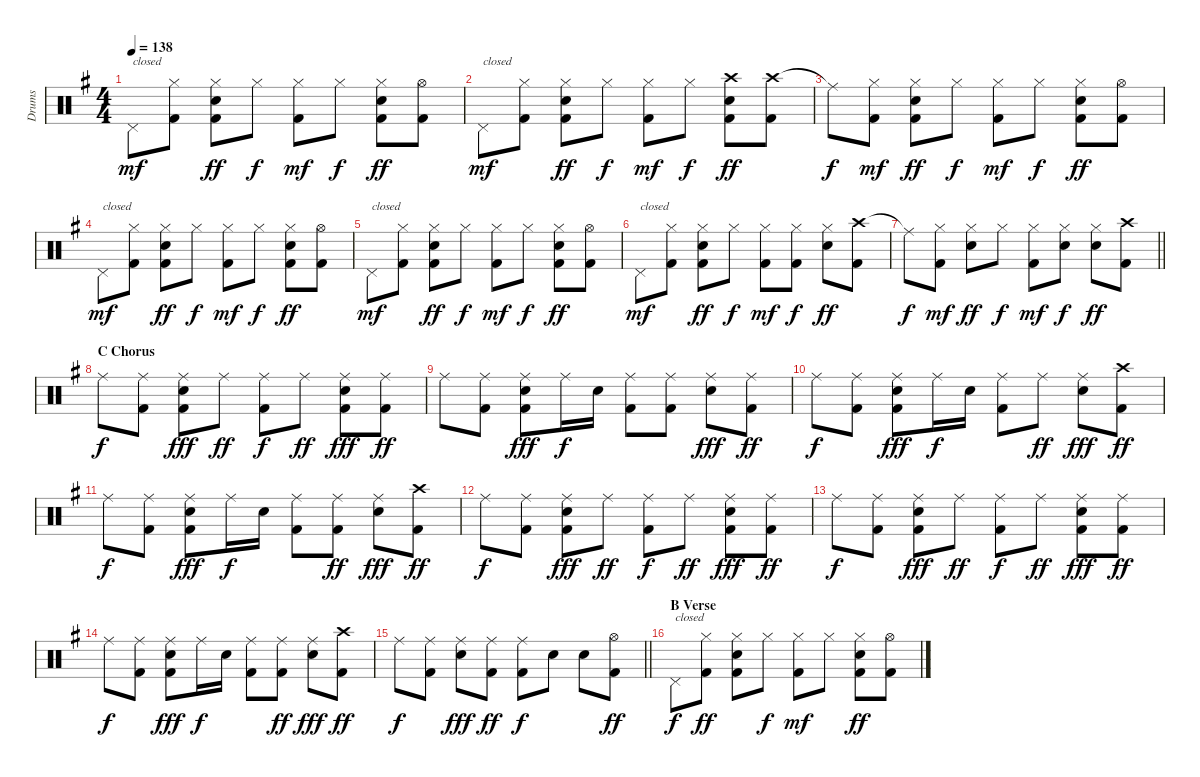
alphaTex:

\track ("Drums" "Drums") {instrument percussion}
\staff {score}
\articulation defaults
\ts (4 4)
\tempo 138
\clef neutral
\ks g "Pedal Hi-Hat (hit)".8{txt "closed" dy mf}
("Hi-Hat (closed)" "Kick (hit) 2").8 ("Snare (hit) 2" "Hi-Hat (closed)" "Kick (hit) 2").8{dy ff} "Hi-Hat (closed)".8{dy f} ("Hi-Hat (closed)" "Kick (hit) 2").8{dy mf} "Hi-Hat (closed)".8{dy f} ("Snare (hit) 2" "Hi-Hat (closed)" "Kick (hit) 2").8{dy ff} ("Hi-Hat (open)" "Kick (hit) 2").8 |
"Pedal Hi-Hat (hit)".8{txt "closed" dy mf} ("Hi-Hat (closed)" "Kick (hit) 2").8 ("Snare (hit) 2" "Hi-Hat (closed)" "Kick (hit) 2").8{dy ff} "Hi-Hat (closed)".8{dy f} ("Hi-Hat (closed)" "Kick (hit) 2").8{dy mf} "Hi-Hat (closed)".8{dy f} ("Crash high (hit)" "Snare (hit) 2" "Kick (hit) 2").8{dy ff} ("Crash high (hit)" "Kick (hit) 2").8 |
"Ride (middle)"{t}.8{dy f} ("Hi-Hat (closed)" "Kick (hit) 2").8{dy mf} ("Snare (hit) 2" "Hi-Hat (closed)" "Kick (hit) 2").8{dy ff} "Hi-Hat (closed)".8{dy f} ("Hi-Hat (closed)" "Kick (hit) 2").8{dy mf} "Hi-Hat (closed)".8{dy f} ("Snare (hit) 2" "Hi-Hat (closed)" "Kick (hit) 2").8{dy ff} ("Hi-Hat (open)" "Kick (hit) 2").8 |
"Pedal Hi-Hat (hit)".8{txt "closed" dy mf} ("Hi-Hat (closed)" "Kick (hit) 2").8 ("Snare (hit) 2" "Hi-Hat (closed)" "Kick (hit) 2").8{dy ff} "Hi-Hat (closed)".8{dy f} ("Hi-Hat (closed)" "Kick (hit) 2").8{dy mf} "Hi-Hat (closed)".8{dy f} ("Snare (hit) 2" "Hi-Hat (closed)" "Kick (hit) 2").8{dy ff} ("Hi-Hat (open)" "Kick (hit) 2").8 |
"Pedal Hi-Hat (hit)".8{txt "closed" dy mf} ("Hi-Hat (closed)" "Kick (hit) 2").8 ("Snare (hit) 2" "Hi-Hat (closed)" "Kick (hit) 2").8{dy ff} "Hi-Hat (closed)".8{dy f} ("Hi-Hat (closed)" "Kick (hit) 2").8{dy mf} "Hi-Hat (closed)".8{dy f} ("Snare (hit) 2" "Hi-Hat (closed)" "Kick (hit) 2").8{dy ff} ("Hi-Hat (open)" "Kick (hit) 2").8 |
"Pedal Hi-Hat (hit)".8{txt "closed" dy mf} ("Hi-Hat (closed)" "Kick (hit) 2").8 ("Snare (hit) 2" "Hi-Hat (closed)" "Kick (hit) 2").8{dy ff} "Hi-Hat (closed)".8{dy f} ("Hi-Hat (closed)" "Kick (hit) 2").8{dy mf} ("Hi-Hat (closed)" "Kick (hit) 2").8{dy f} ("Snare (hit) 2" "Hi-Hat (closed)").8{dy ff} ("Crash high (hit)" "Kick (hit) 2").8 |
\barLineRight lightlight "Ride (middle)"{t}.8{dy f}
("Hi-Hat (closed)" "Kick (hit) 2").8{dy mf} ("Snare (hit) 2" "Hi-Hat (closed)").8{dy ff} "Hi-Hat (closed)".8{dy f} ("Hi-Hat (closed)" "Kick (hit) 2").8{dy mf} ("Snare (hit) 2" "Hi-Hat (closed)").8{dy f} ("Snare (hit) 2" "Hi-Hat (closed)").8{dy ff} ("Crash high (hit)" "Kick (hit) 2").8 |
\section ("" "C Chorus")
"Ride (middle)".8{dy f} ("Ride (middle)" "Kick (hit) 2").8 ("Ride (middle)" "Snare (hit) 2" "Kick (hit) 2").8{dy fff} "Ride (middle)".8{dy ff} ("Ride (middle)" "Kick (hit) 2").8{dy f} "Ride (middle)".8{dy ff} ("Ride (middle)" "Snare (hit) 2" "Kick (hit) 2").8{dy fff} ("Ride (middle)" "Kick (hit) 2").8{dy ff} |
"Ride (middle)".8 ("Ride (middle)" "Kick (hit) 2").8 ("Ride (middle)" "Snare (hit) 2" "Kick (hit) 2").8{dy fff} "Ride (middle)".16{dy f} "Snare (hit) 2".16 ("Ride (middle)" "Kick (hit) 2").8 ("Ride (middle)" "Kick (hit) 2").8 ("Ride (middle)" "Snare (hit) 2").8{dy fff} ("Ride (middle)" "Kick (hit) 2").8{dy ff} |
"Ride (middle)".8{dy f} ("Ride (middle)" "Kick (hit) 2").8 ("Ride (middle)" "Snare (hit) 2" "Kick (hit) 2").8{dy fff} "Ride (middle)".16{dy f} "Snare (hit) 2".16 ("Ride (middle)" "Kick (hit) 2").8 "Ride (middle)".8{dy ff} ("Ride (middle)" "Snare (hit) 2").8{dy fff} ("Crash high (hit)" "Kick (hit) 2").8{dy ff} |
"Ride (middle)".8{dy f} ("Ride (middle)" "Kick (hit) 2").8 ("Ride (middle)" "Snare (hit) 2" "Kick (hit) 2").8{dy fff} "Ride (middle)".16{dy f} "Snare (hit) 2".16 ("Ride (middle)" "Kick (hit) 2").8 ("Ride (middle)" "Kick (hit) 2").8{dy ff} ("Ride (middle)" "Snare (hit) 2").8{dy fff} ("Crash high (hit)" "Kick (hit) 2").8{dy ff} |
"Ride (middle)".8{dy f} ("Ride (middle)" "Kick (hit) 2").8 ("Ride (middle)" "Snare (hit) 2" "Kick (hit) 2").8{dy fff} "Ride (middle)".8{dy ff} ("Ride (middle)" "Kick (hit) 2").8{dy f} "Ride (middle)".8{dy ff} ("Ride (middle)" "Snare (hit) 2" "Kick (hit) 2").8{dy fff} ("Ride (middle)" "Kick (hit) 2").8{dy ff} |
"Ride (middle)".8{dy f} ("Ride (middle)" "Kick (hit) 2").8 ("Ride (middle)" "Snare (hit) 2" "Kick (hit) 2").8{dy fff} "Ride (middle)".8{dy ff} ("Ride (middle)" "Kick (hit) 2").8{dy f} "Ride (middle)".8{dy ff} ("Ride (middle)" "Snare (hit) 2" "Kick (hit) 2").8{dy fff} ("Ride (middle)" "Kick (hit) 2").8{dy ff} |
"Ride (middle)".8{dy f} ("Ride (middle)" "Kick (hit) 2").8 ("Ride (middle)" "Snare (hit) 2" "Kick (hit) 2").8{dy fff} "Ride (middle)".16{dy f} "Snare (hit) 2".16 ("Ride (middle)" "Kick (hit) 2").8 ("Ride (middle)" "Kick (hit) 2").8{dy ff} ("Ride (middle)" "Snare (hit) 2").8{dy fff} ("Crash high (hit)" "Kick (hit) 2").8{dy ff} |
\barLineRight lightlight "Ride (middle)".8{dy f}
("Ride (middle)" "Kick (hit) 2").8 ("Ride (middle)" "Snare (hit) 2").8{dy fff} ("Ride (middle)" "Kick (hit) 2").8{dy ff} ("Ride (middle)" "Kick (hit) 2").8{dy f} "Snare (hit) 2".8 "Snare (hit) 2".8 ("Hi-Hat (open)" "Kick (hit) 2").8{dy ff} |
\section ("" "B Verse")
"Pedal Hi-Hat (hit)".8{txt "closed" dy f} ("Hi-Hat (closed)" "Kick (hit) 2").8{dy ff} ("Snare (hit) 2" "Hi-Hat (closed)" "Kick (hit) 2").8 "Hi-Hat (closed)".8{dy f} ("Hi-Hat (closed)" "Kick (hit) 2").8{dy mf} "Hi-Hat (closed)".8 ("Snare (hit) 2" "Hi-Hat (closed)" "Kick (hit) 2").8{dy ff} ("Hi-Hat (open)" "Kick (hit) 2").8
